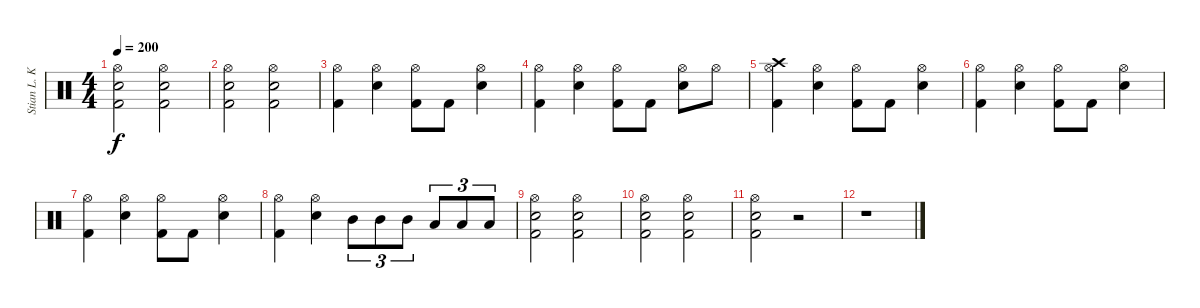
\track ("Stian L. Kristoffersen - Drums" "Stian L. K") {instrument percussion}
\staff {score}
\articulation defaults
\ts (4 4)
\tempo 200
\clef neutral
\ks c
("Hi-Hat (open)" "Electric Snare (hit)" "Kick (hit) 2").2{dy f} ("Hi-Hat (open)" "Electric Snare (hit)" "Kick (hit) 2").2 |
("Hi-Hat (open)" "Electric Snare (hit)" "Kick (hit) 2").2 ("Hi-Hat (open)" "Electric Snare (hit)" "Kick (hit) 2").2 |
("Hi-Hat (open)" "Kick (hit) 2").4 ("Hi-Hat (open)" "Electric Snare (hit)").4 ("Hi-Hat (open)" "Kick (hit) 2").8 "Kick (hit) 2".8 ("Hi-Hat (open)" "Electric Snare (hit)").4 |
("Hi-Hat (open)" "Kick (hit) 2").4 ("Hi-Hat (open)" "Electric Snare (hit)").4 ("Hi-Hat (open)" "Kick (hit) 2").8 "Kick (hit) 2".8 ("Hi-Hat (open)" "Electric Snare (hit)").8 "Hi-Hat (open)".8 |
("Crash high (hit)" "Hi-Hat (open)" "Kick (hit) 2").4 ("Hi-Hat (open)" "Electric Snare (hit)").4 ("Hi-Hat (open)" "Kick (hit) 2").8 "Kick (hit) 2".8 ("Hi-Hat (open)" "Electric Snare (hit)").4 |
("Hi-Hat (open)" "Kick (hit) 2").4 ("Hi-Hat (open)" "Electric Snare (hit)").4 ("Hi-Hat (open)" "Kick (hit) 2").8 "Kick (hit) 2".8 ("Hi-Hat (open)" "Electric Snare (hit)").4 |
("Hi-Hat (open)" "Kick (hit) 2").4 ("Hi-Hat (open)" "Electric Snare (hit)").4 ("Hi-Hat (open)" "Kick (hit) 2").8 "Kick (hit) 2".8 ("Hi-Hat (open)" "Electric Snare (hit)").4 |
("Hi-Hat (open)" "Kick (hit) 2").4 ("Hi-Hat (open)" "Electric Snare (hit)").4 "Mid Tom (hit)".8{tu (3 2)} "Mid Tom (hit)".8{tu (3 2)} "Mid Tom (hit)".8{tu (3 2)} "Low Tom (hit)".8{tu (3 2)} "Low Tom (hit)".8{tu (3 2)} "Low Tom (hit)".8{tu (3 2)} |
("Hi-Hat (open)" "Electric Snare (hit)" "Kick (hit) 2").2 ("Hi-Hat (open)" "Electric Snare (hit)" "Kick (hit) 2").2 |
("Hi-Hat (open)" "Electric Snare (hit)" "Kick (hit) 2").2 ("Hi-Hat (open)" "Electric Snare (hit)" "Kick (hit) 2").2 |
("Hi-Hat (open)" "Electric Snare (hit)" "Kick (hit) 2").2 r.2 |
r.1
